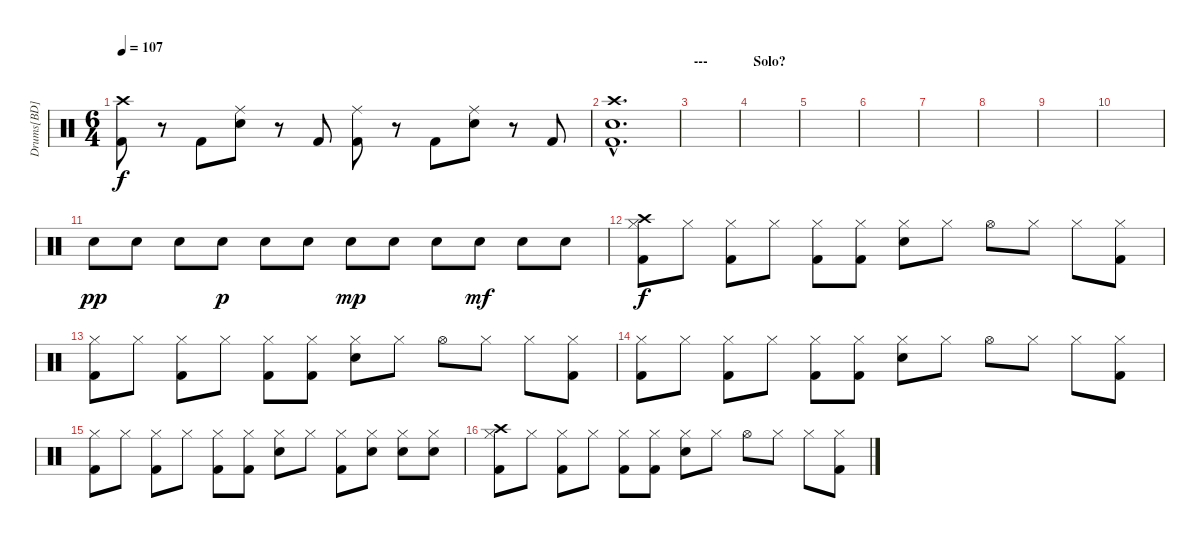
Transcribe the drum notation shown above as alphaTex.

\track ("Drums[BD]" "Drums[BD]") {instrument percussion}
\staff {score}
\articulation defaults
\ts (6 4)
\tempo 107
\clef neutral
\ks c
("Kick (hit) 2" "Crash high (hit)").8{dy f} r.8 "Kick (hit) 2".8 ("Electric Snare (hit)" "Ride (middle)").8 r.8 "Kick (hit) 2".8 ("Kick (hit) 2" "Ride (middle)").8 r.8 "Kick (hit) 2".8 ("Electric Snare (hit)" "Ride (middle)").8 r.8 "Kick (hit) 2".8 |
("Kick (hit) 2"{hac} "Crash high (hit)"{hac} "Electric Snare (hit)"{hac}).1{d} |
\section ("" "---")
|
\section ("" "Solo?")
|
|
|
|
|
|
|
"Electric Snare (hit)".8{dy pp} "Electric Snare (hit)".8 "Electric Snare (hit)".8 "Electric Snare (hit)".8{dy p} "Electric Snare (hit)".8 "Electric Snare (hit)".8 "Electric Snare (hit)".8{dy mp} "Electric Snare (hit)".8 "Electric Snare (hit)".8 "Electric Snare (hit)".8{dy mf} "Electric Snare (hit)".8 "Electric Snare (hit)".8 |
("Hi-Hat (closed)" "Kick (hit) 2" "Crash high (hit)").8{dy f} "Hi-Hat (closed)".8 ("Hi-Hat (closed)" "Kick (hit) 2").8 "Hi-Hat (closed)".8 ("Hi-Hat (closed)" "Kick (hit) 2").8 ("Hi-Hat (closed)" "Kick (hit) 2").8 ("Hi-Hat (closed)" "Electric Snare (hit)").8 "Hi-Hat (closed)".8 "Hi-Hat (open)".8 "Hi-Hat (closed)".8 "Hi-Hat (closed)".8 ("Hi-Hat (closed)" "Kick (hit) 2").8 |
("Hi-Hat (closed)" "Kick (hit) 2").8 "Hi-Hat (closed)".8 ("Hi-Hat (closed)" "Kick (hit) 2").8 "Hi-Hat (closed)".8 ("Hi-Hat (closed)" "Kick (hit) 2").8 ("Hi-Hat (closed)" "Kick (hit) 2").8 ("Hi-Hat (closed)" "Electric Snare (hit)").8 "Hi-Hat (closed)".8 "Hi-Hat (open)".8 "Hi-Hat (closed)".8 "Hi-Hat (closed)".8 ("Hi-Hat (closed)" "Kick (hit) 2").8 |
("Hi-Hat (closed)" "Kick (hit) 2").8 "Hi-Hat (closed)".8 ("Hi-Hat (closed)" "Kick (hit) 2").8 "Hi-Hat (closed)".8 ("Hi-Hat (closed)" "Kick (hit) 2").8 ("Hi-Hat (closed)" "Kick (hit) 2").8 ("Hi-Hat (closed)" "Electric Snare (hit)").8 "Hi-Hat (closed)".8 "Hi-Hat (open)".8 "Hi-Hat (closed)".8 "Hi-Hat (closed)".8 ("Hi-Hat (closed)" "Kick (hit) 2").8 |
("Hi-Hat (closed)" "Kick (hit) 2").8 "Hi-Hat (closed)".8 ("Hi-Hat (closed)" "Kick (hit) 2").8 "Hi-Hat (closed)".8 ("Hi-Hat (closed)" "Kick (hit) 2").8 ("Hi-Hat (closed)" "Kick (hit) 2").8 ("Hi-Hat (closed)" "Electric Snare (hit)").8 "Hi-Hat (closed)".8 ("Hi-Hat (closed)" "Kick (hit) 2").8 ("Hi-Hat (closed)" "Electric Snare (hit)").8 ("Hi-Hat (closed)" "Electric Snare (hit)").8 ("Hi-Hat (closed)" "Electric Snare (hit)").8 |
("Hi-Hat (closed)" "Kick (hit) 2" "Crash high (hit)").8 "Hi-Hat (closed)".8 ("Hi-Hat (closed)" "Kick (hit) 2").8 "Hi-Hat (closed)".8 ("Hi-Hat (closed)" "Kick (hit) 2").8 ("Hi-Hat (closed)" "Kick (hit) 2").8 ("Hi-Hat (closed)" "Electric Snare (hit)").8 "Hi-Hat (closed)".8 "Hi-Hat (open)".8 "Hi-Hat (closed)".8 "Hi-Hat (closed)".8 ("Hi-Hat (closed)" "Kick (hit) 2").8
